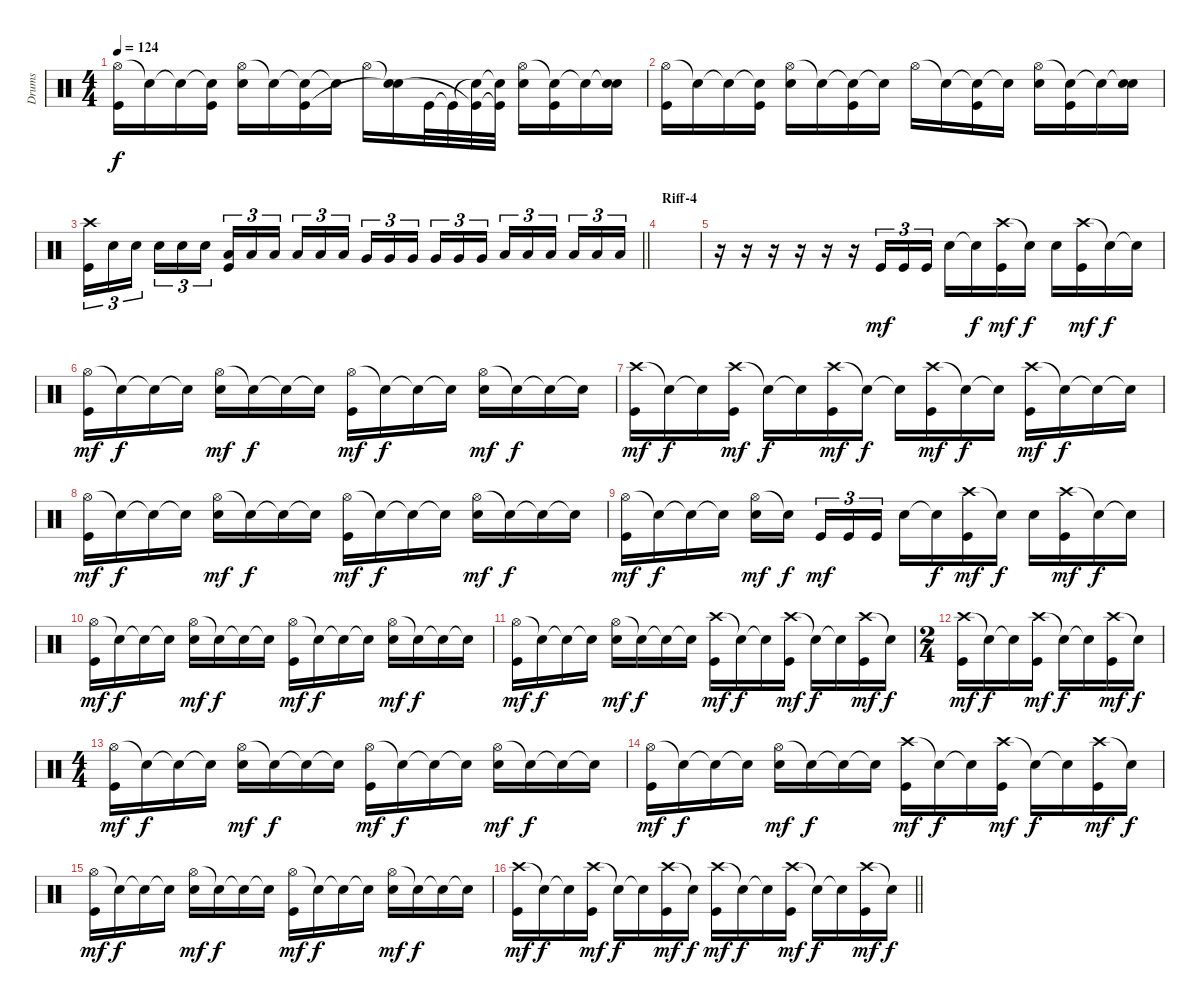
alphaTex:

\track ("Drums" "Drums") {instrument percussion}
\staff {score}
\articulation defaults
\ts (4 4)
\tempo 124
\clef neutral
\ks c
("Hi-Hat (open)" "Kick (hit)").16{dy f} "Snare (hit)"{t}.16 "Snare (hit)"{t}.16 ("Snare (hit)"{t} "Kick (hit)").16 ("Hi-Hat (open)" "Electric Snare (hit)").16 "Snare (hit)"{t}.16 ("Snare (hit)"{t} "Kick (hit)").16 "Snare (hit)"{t}.16 "Hi-Hat (open)".16 ("Snare (hit)"{t} "Electric Snare (hit)"{t}).16 "Kick (hit)".32 "Kick (hit)"{t}.32 ("Snare (hit)"{t} "Kick (hit)"{t}).32 ("Snare (hit)"{t} "Kick (hit)"{t}).32 ("Hi-Hat (open)" "Electric Snare (hit)").16 ("Snare (hit)"{t} "Kick (hit)").16 "Snare (hit)"{t}.16 ("Snare (hit)"{t} "Electric Snare (hit)").16 |
("Hi-Hat (open)" "Kick (hit)").16 "Snare (hit)"{t}.16 "Snare (hit)"{t}.16 ("Snare (hit)"{t} "Kick (hit)").16 ("Hi-Hat (open)" "Electric Snare (hit)").16 "Snare (hit)"{t}.16 ("Snare (hit)"{t} "Kick (hit)").16 "Snare (hit)"{t}.16 "Hi-Hat (open)".16 "Snare (hit)"{t}.16 ("Snare (hit)"{t} "Kick (hit)").16 "Snare (hit)"{t}.16 ("Hi-Hat (open)" "Electric Snare (hit)").16 ("Snare (hit)"{t} "Kick (hit)").16 "Snare (hit)"{t}.16 ("Snare (hit)"{t} "Electric Snare (hit)").16 |
\barLineRight lightlight
("Crash high (hit)" "Kick (hit)").16{tu (3 2)} "Electric Snare (hit)".16{tu (3 2)} "Electric Snare (hit)".16{tu (3 2)} "Electric Snare (hit)".16{tu (3 2)} "Electric Snare (hit)".16{tu (3 2)} "Electric Snare (hit)".16{tu (3 2)} ("Low Tom (hit)" "Kick (hit)").16{tu (3 2)} "Low Tom (hit)".16{tu (3 2)} "Low Tom (hit)".16{tu (3 2)} "Low Tom (hit)".16{tu (3 2)} "Low Tom (hit)".16{tu (3 2)} "Low Tom (hit)".16{tu (3 2)} "Very Low Tom (hit)".16{tu (3 2)} "Very Low Tom (hit)".16{tu (3 2)} "Very Low Tom (hit)".16{tu (3 2)} "Very Low Tom (hit)".16{tu (3 2)} "Very Low Tom (hit)".16{tu (3 2)} "Very Low Tom (hit)".16{tu (3 2)} "Low Floor Tom (hit)".16{tu (3 2)} "Low Floor Tom (hit)".16{tu (3 2)} "Low Floor Tom (hit)".16{tu (3 2)} "Low Floor Tom (hit)".16{tu (3 2)} "Low Floor Tom (hit)".16{tu (3 2)} "Low Floor Tom (hit)".16{tu (3 2)} |
\section ("" "Riff-4")
|
r.16 r.16 r.16 r.16 r.16 r.16 "Kick (hit)".16{tu (3 2) dy mf} "Kick (hit)".16{tu (3 2)} "Kick (hit)".16{tu (3 2)} "Electric Snare (hit)".16 "Snare (hit)"{t}.16{dy f} ("Crash high (hit)" "Kick (hit)").16{dy mf} "Snare (hit)"{t}.16{dy f} "Electric Snare (hit)".16 ("Crash high (hit)" "Kick (hit)").16{dy mf} "Snare (hit)"{t}.16{dy f} "Snare (hit)"{t}.16 |
("Hi-Hat (open)" "Kick (hit)").16{dy mf} "Snare (hit)"{t}.16{dy f} "Snare (hit)"{t}.16 "Snare (hit)"{t}.16 ("Hi-Hat (open)" "Electric Snare (hit)").16{dy mf} "Snare (hit)"{t}.16{dy f} "Snare (hit)"{t}.16 "Snare (hit)"{t}.16 ("Hi-Hat (open)" "Kick (hit)").16{dy mf} "Snare (hit)"{t}.16{dy f} "Snare (hit)"{t}.16 "Snare (hit)"{t}.16 ("Hi-Hat (open)" "Electric Snare (hit)").16{dy mf} "Snare (hit)"{t}.16{dy f} "Snare (hit)"{t}.16 "Snare (hit)"{t}.16 |
("Crash high (hit)" "Kick (hit)").16{dy mf} "Snare (hit)"{t}.16{dy f} "Snare (hit)"{t}.16 ("Crash high (hit)" "Kick (hit)").16{dy mf} "Snare (hit)"{t}.16{dy f} "Snare (hit)"{t}.16 ("Crash high (hit)" "Kick (hit)").16{dy mf} "Snare (hit)"{t}.16{dy f} "Snare (hit)"{t}.16 ("Crash high (hit)" "Kick (hit)").16{dy mf} "Snare (hit)"{t}.16{dy f} "Snare (hit)"{t}.16 ("Crash high (hit)" "Kick (hit)").16{dy mf} "Snare (hit)"{t}.16{dy f} "Snare (hit)"{t}.16 "Snare (hit)"{t}.16 |
("Hi-Hat (open)" "Kick (hit)").16{dy mf} "Snare (hit)"{t}.16{dy f} "Snare (hit)"{t}.16 "Snare (hit)"{t}.16 ("Hi-Hat (open)" "Electric Snare (hit)").16{dy mf} "Snare (hit)"{t}.16{dy f} "Snare (hit)"{t}.16 "Snare (hit)"{t}.16 ("Hi-Hat (open)" "Kick (hit)").16{dy mf} "Snare (hit)"{t}.16{dy f} "Snare (hit)"{t}.16 "Snare (hit)"{t}.16 ("Hi-Hat (open)" "Electric Snare (hit)").16{dy mf} "Snare (hit)"{t}.16{dy f} "Snare (hit)"{t}.16 "Snare (hit)"{t}.16 |
("Hi-Hat (open)" "Kick (hit)").16{dy mf} "Snare (hit)"{t}.16{dy f} "Snare (hit)"{t}.16 "Snare (hit)"{t}.16 ("Hi-Hat (open)" "Electric Snare (hit)").16{dy mf} "Snare (hit)"{t}.16{dy f} "Kick (hit)".16{tu (3 2) dy mf} "Kick (hit)".16{tu (3 2)} "Kick (hit)".16{tu (3 2)} "Electric Snare (hit)".16 "Snare (hit)"{t}.16{dy f} ("Crash high (hit)" "Kick (hit)").16{dy mf} "Snare (hit)"{t}.16{dy f} "Electric Snare (hit)".16 ("Crash high (hit)" "Kick (hit)").16{dy mf} "Snare (hit)"{t}.16{dy f} "Snare (hit)"{t}.16 |
("Hi-Hat (open)" "Kick (hit)").16{dy mf} "Snare (hit)"{t}.16{dy f} "Snare (hit)"{t}.16 "Snare (hit)"{t}.16 ("Hi-Hat (open)" "Electric Snare (hit)").16{dy mf} "Snare (hit)"{t}.16{dy f} "Snare (hit)"{t}.16 "Snare (hit)"{t}.16 ("Hi-Hat (open)" "Kick (hit)").16{dy mf} "Snare (hit)"{t}.16{dy f} "Snare (hit)"{t}.16 "Snare (hit)"{t}.16 ("Hi-Hat (open)" "Electric Snare (hit)").16{dy mf} "Snare (hit)"{t}.16{dy f} "Snare (hit)"{t}.16 "Snare (hit)"{t}.16 |
("Hi-Hat (open)" "Kick (hit)").16{dy mf} "Snare (hit)"{t}.16{dy f} "Snare (hit)"{t}.16 "Snare (hit)"{t}.16 ("Hi-Hat (open)" "Electric Snare (hit)").16{dy mf} "Snare (hit)"{t}.16{dy f} "Snare (hit)"{t}.16 "Snare (hit)"{t}.16 ("Crash high (hit)" "Kick (hit)").16{dy mf} "Snare (hit)"{t}.16{dy f} "Snare (hit)"{t}.16 ("Crash high (hit)" "Kick (hit)").16{dy mf} "Snare (hit)"{t}.16{dy f} "Snare (hit)"{t}.16 ("Crash high (hit)" "Kick (hit)").16{dy mf} "Snare (hit)"{t}.16{dy f} |
\ts (2 4)
("Crash high (hit)" "Kick (hit)").16{dy mf} "Snare (hit)"{t}.16{dy f} "Snare (hit)"{t}.16 ("Crash high (hit)" "Kick (hit)").16{dy mf} "Snare (hit)"{t}.16{dy f} "Snare (hit)"{t}.16 ("Crash high (hit)" "Kick (hit)").16{dy mf} "Snare (hit)"{t}.16{dy f} |
\ts (4 4)
("Hi-Hat (open)" "Kick (hit)").16{dy mf} "Snare (hit)"{t}.16{dy f} "Snare (hit)"{t}.16 "Snare (hit)"{t}.16 ("Hi-Hat (open)" "Electric Snare (hit)").16{dy mf} "Snare (hit)"{t}.16{dy f} "Snare (hit)"{t}.16 "Snare (hit)"{t}.16 ("Hi-Hat (open)" "Kick (hit)").16{dy mf} "Snare (hit)"{t}.16{dy f} "Snare (hit)"{t}.16 "Snare (hit)"{t}.16 ("Hi-Hat (open)" "Electric Snare (hit)").16{dy mf} "Snare (hit)"{t}.16{dy f} "Snare (hit)"{t}.16 "Snare (hit)"{t}.16 |
("Hi-Hat (open)" "Kick (hit)").16{dy mf} "Snare (hit)"{t}.16{dy f} "Snare (hit)"{t}.16 "Snare (hit)"{t}.16 ("Hi-Hat (open)" "Electric Snare (hit)").16{dy mf} "Snare (hit)"{t}.16{dy f} "Snare (hit)"{t}.16 "Snare (hit)"{t}.16 ("Crash high (hit)" "Kick (hit)").16{dy mf} "Snare (hit)"{t}.16{dy f} "Snare (hit)"{t}.16 ("Crash high (hit)" "Kick (hit)").16{dy mf} "Snare (hit)"{t}.16{dy f} "Snare (hit)"{t}.16 ("Crash high (hit)" "Kick (hit)").16{dy mf} "Snare (hit)"{t}.16{dy f} |
("Hi-Hat (open)" "Kick (hit)").16{dy mf} "Snare (hit)"{t}.16{dy f} "Snare (hit)"{t}.16 "Snare (hit)"{t}.16 ("Hi-Hat (open)" "Electric Snare (hit)").16{dy mf} "Snare (hit)"{t}.16{dy f} "Snare (hit)"{t}.16 "Snare (hit)"{t}.16 ("Hi-Hat (open)" "Kick (hit)").16{dy mf} "Snare (hit)"{t}.16{dy f} "Snare (hit)"{t}.16 "Snare (hit)"{t}.16 ("Hi-Hat (open)" "Electric Snare (hit)").16{dy mf} "Snare (hit)"{t}.16{dy f} "Snare (hit)"{t}.16 "Snare (hit)"{t}.16 |
\barLineRight lightlight
("Crash high (hit)" "Kick (hit)").16{dy mf} "Snare (hit)"{t}.16{dy f} "Snare (hit)"{t}.16 ("Crash high (hit)" "Kick (hit)").16{dy mf} "Snare (hit)"{t}.16{dy f} "Snare (hit)"{t}.16 ("Crash high (hit)" "Kick (hit)").16{dy mf} "Snare (hit)"{t}.16{dy f} ("Crash high (hit)" "Kick (hit)").16{dy mf} "Snare (hit)"{t}.16{dy f} "Snare (hit)"{t}.16 ("Crash high (hit)" "Kick (hit)").16{dy mf} "Snare (hit)"{t}.16{dy f} "Snare (hit)"{t}.16 ("Crash high (hit)" "Kick (hit)").16{dy mf} "Snare (hit)"{t}.16{dy f}
